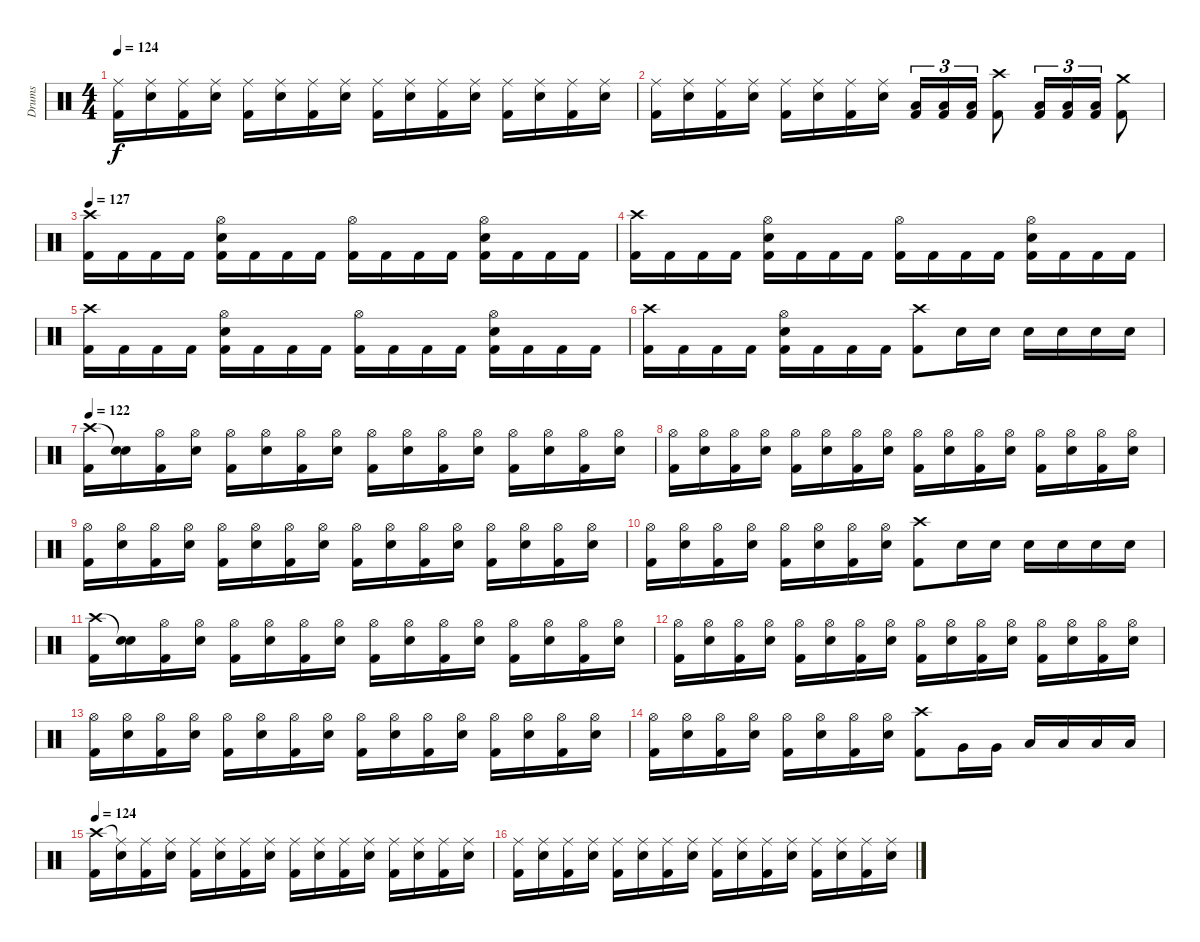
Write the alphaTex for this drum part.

\track ("Drums" "Drums") {instrument percussion}
\staff {score}
\articulation defaults
\ts (4 4)
\tempo 124
\clef neutral
\ks c
("Ride (middle)" "Kick (hit) 2").16{dy f} ("Ride (middle)" "Snare (hit) 2").16 ("Ride (middle)" "Kick (hit) 2").16 ("Ride (middle)" "Snare (hit) 2").16 ("Ride (middle)" "Kick (hit) 2").16 ("Ride (middle)" "Snare (hit) 2").16 ("Ride (middle)" "Kick (hit) 2").16 ("Ride (middle)" "Snare (hit) 2").16 ("Ride (middle)" "Kick (hit) 2").16 ("Ride (middle)" "Snare (hit) 2").16 ("Ride (middle)" "Kick (hit) 2").16 ("Ride (middle)" "Snare (hit) 2").16 ("Ride (middle)" "Kick (hit) 2").16 ("Ride (middle)" "Snare (hit) 2").16 ("Ride (middle)" "Kick (hit) 2").16 ("Ride (middle)" "Snare (hit) 2").16 |
("Ride (middle)" "Kick (hit) 2").16 ("Ride (middle)" "Snare (hit) 2").16 ("Ride (middle)" "Kick (hit) 2").16 ("Ride (middle)" "Snare (hit) 2").16 ("Ride (middle)" "Kick (hit) 2").16 ("Ride (middle)" "Snare (hit) 2").16 ("Ride (middle)" "Kick (hit) 2").16 ("Ride (middle)" "Snare (hit) 2").16 ("Low Tom (hit)" "Kick (hit) 2").16{tu (3 2)} ("Low Tom (hit)" "Kick (hit) 2").16{tu (3 2)} ("Low Tom (hit)" "Kick (hit) 2").16{tu (3 2)} ("Crash high (hit)" "Kick (hit) 2").8 ("Low Tom (hit)" "Kick (hit) 2").16{tu (3 2)} ("Low Tom (hit)" "Kick (hit) 2").16{tu (3 2)} ("Low Tom (hit)" "Kick (hit) 2").16{tu (3 2)} ("Crash medium (hit)" "Kick (hit) 2").8 |
\tempo 127
("Crash high (hit)" "Kick (hit) 2").16 "Kick (hit) 2".16 "Kick (hit) 2".16 "Kick (hit) 2".16 ("Hi-Hat (open)" "Snare (hit) 2" "Kick (hit) 2").16 "Kick (hit) 2".16 "Kick (hit) 2".16 "Kick (hit) 2".16 ("Hi-Hat (open)" "Kick (hit) 2").16 "Kick (hit) 2".16 "Kick (hit) 2".16 "Kick (hit) 2".16 ("Hi-Hat (open)" "Snare (hit) 2" "Kick (hit) 2").16 "Kick (hit) 2".16 "Kick (hit) 2".16 "Kick (hit) 2".16 |
("Crash high (hit)" "Kick (hit) 2").16 "Kick (hit) 2".16 "Kick (hit) 2".16 "Kick (hit) 2".16 ("Hi-Hat (open)" "Snare (hit) 2" "Kick (hit) 2").16 "Kick (hit) 2".16 "Kick (hit) 2".16 "Kick (hit) 2".16 ("Hi-Hat (open)" "Kick (hit) 2").16 "Kick (hit) 2".16 "Kick (hit) 2".16 "Kick (hit) 2".16 ("Hi-Hat (open)" "Snare (hit) 2" "Kick (hit) 2").16 "Kick (hit) 2".16 "Kick (hit) 2".16 "Kick (hit) 2".16 |
("Crash high (hit)" "Kick (hit) 2").16 "Kick (hit) 2".16 "Kick (hit) 2".16 "Kick (hit) 2".16 ("Hi-Hat (open)" "Snare (hit) 2" "Kick (hit) 2").16 "Kick (hit) 2".16 "Kick (hit) 2".16 "Kick (hit) 2".16 ("Hi-Hat (open)" "Kick (hit) 2").16 "Kick (hit) 2".16 "Kick (hit) 2".16 "Kick (hit) 2".16 ("Hi-Hat (open)" "Snare (hit) 2" "Kick (hit) 2").16 "Kick (hit) 2".16 "Kick (hit) 2".16 "Kick (hit) 2".16 |
("Crash high (hit)" "Kick (hit) 2").16 "Kick (hit) 2".16 "Kick (hit) 2".16 "Kick (hit) 2".16 ("Hi-Hat (open)" "Snare (hit) 2" "Kick (hit) 2").16 "Kick (hit) 2".16 "Kick (hit) 2".16 "Kick (hit) 2".16 ("Crash high (hit)" "Kick (hit) 2").8 "Snare (hit) 2".16 "Snare (hit) 2".16 "Snare (hit) 2".16 "Snare (hit) 2".16 "Snare (hit) 2".16 "Snare (hit) 2".16 |
\tempo 122
("Crash high (hit)" "Kick (hit) 2").16 ("Snare (hit)"{t} "Snare (hit) 2").16 ("Hi-Hat (open)" "Kick (hit) 2").16 ("Hi-Hat (open)" "Snare (hit) 2").16 ("Hi-Hat (open)" "Kick (hit) 2").16 ("Hi-Hat (open)" "Snare (hit) 2").16 ("Hi-Hat (open)" "Kick (hit) 2").16 ("Hi-Hat (open)" "Snare (hit) 2").16 ("Hi-Hat (open)" "Kick (hit) 2").16 ("Hi-Hat (open)" "Snare (hit) 2").16 ("Hi-Hat (open)" "Kick (hit) 2").16 ("Hi-Hat (open)" "Snare (hit) 2").16 ("Hi-Hat (open)" "Kick (hit) 2").16 ("Hi-Hat (open)" "Snare (hit) 2").16 ("Hi-Hat (open)" "Kick (hit) 2").16 ("Hi-Hat (open)" "Snare (hit) 2").16 |
("Hi-Hat (open)" "Kick (hit) 2").16 ("Hi-Hat (open)" "Snare (hit) 2").16 ("Hi-Hat (open)" "Kick (hit) 2").16 ("Hi-Hat (open)" "Snare (hit) 2").16 ("Hi-Hat (open)" "Kick (hit) 2").16 ("Hi-Hat (open)" "Snare (hit) 2").16 ("Hi-Hat (open)" "Kick (hit) 2").16 ("Hi-Hat (open)" "Snare (hit) 2").16 ("Hi-Hat (open)" "Kick (hit) 2").16 ("Hi-Hat (open)" "Snare (hit) 2").16 ("Hi-Hat (open)" "Kick (hit) 2").16 ("Hi-Hat (open)" "Snare (hit) 2").16 ("Hi-Hat (open)" "Kick (hit) 2").16 ("Hi-Hat (open)" "Snare (hit) 2").16 ("Hi-Hat (open)" "Kick (hit) 2").16 ("Hi-Hat (open)" "Snare (hit) 2").16 |
("Hi-Hat (open)" "Kick (hit) 2").16 ("Hi-Hat (open)" "Snare (hit) 2").16 ("Hi-Hat (open)" "Kick (hit) 2").16 ("Hi-Hat (open)" "Snare (hit) 2").16 ("Hi-Hat (open)" "Kick (hit) 2").16 ("Hi-Hat (open)" "Snare (hit) 2").16 ("Hi-Hat (open)" "Kick (hit) 2").16 ("Hi-Hat (open)" "Snare (hit) 2").16 ("Hi-Hat (open)" "Kick (hit) 2").16 ("Hi-Hat (open)" "Snare (hit) 2").16 ("Hi-Hat (open)" "Kick (hit) 2").16 ("Hi-Hat (open)" "Snare (hit) 2").16 ("Hi-Hat (open)" "Kick (hit) 2").16 ("Hi-Hat (open)" "Snare (hit) 2").16 ("Hi-Hat (open)" "Kick (hit) 2").16 ("Hi-Hat (open)" "Snare (hit) 2").16 |
("Hi-Hat (open)" "Kick (hit) 2").16 ("Hi-Hat (open)" "Snare (hit) 2").16 ("Hi-Hat (open)" "Kick (hit) 2").16 ("Hi-Hat (open)" "Snare (hit) 2").16 ("Hi-Hat (open)" "Kick (hit) 2").16 ("Hi-Hat (open)" "Snare (hit) 2").16 ("Hi-Hat (open)" "Kick (hit) 2").16 ("Hi-Hat (open)" "Snare (hit) 2").16 ("Crash high (hit)" "Kick (hit) 2").8 "Snare (hit) 2".16 "Snare (hit) 2".16 "Snare (hit) 2".16 "Snare (hit) 2".16 "Snare (hit) 2".16 "Snare (hit) 2".16 |
("Crash high (hit)" "Kick (hit) 2").16 ("Snare (hit)"{t} "Snare (hit) 2").16 ("Hi-Hat (open)" "Kick (hit) 2").16 ("Hi-Hat (open)" "Snare (hit) 2").16 ("Hi-Hat (open)" "Kick (hit) 2").16 ("Hi-Hat (open)" "Snare (hit) 2").16 ("Hi-Hat (open)" "Kick (hit) 2").16 ("Hi-Hat (open)" "Snare (hit) 2").16 ("Hi-Hat (open)" "Kick (hit) 2").16 ("Hi-Hat (open)" "Snare (hit) 2").16 ("Hi-Hat (open)" "Kick (hit) 2").16 ("Hi-Hat (open)" "Snare (hit) 2").16 ("Hi-Hat (open)" "Kick (hit) 2").16 ("Hi-Hat (open)" "Snare (hit) 2").16 ("Hi-Hat (open)" "Kick (hit) 2").16 ("Hi-Hat (open)" "Snare (hit) 2").16 |
("Hi-Hat (open)" "Kick (hit) 2").16 ("Hi-Hat (open)" "Snare (hit) 2").16 ("Hi-Hat (open)" "Kick (hit) 2").16 ("Hi-Hat (open)" "Snare (hit) 2").16 ("Hi-Hat (open)" "Kick (hit) 2").16 ("Hi-Hat (open)" "Snare (hit) 2").16 ("Hi-Hat (open)" "Kick (hit) 2").16 ("Hi-Hat (open)" "Snare (hit) 2").16 ("Hi-Hat (open)" "Kick (hit) 2").16 ("Hi-Hat (open)" "Snare (hit) 2").16 ("Hi-Hat (open)" "Kick (hit) 2").16 ("Hi-Hat (open)" "Snare (hit) 2").16 ("Hi-Hat (open)" "Kick (hit) 2").16 ("Hi-Hat (open)" "Snare (hit) 2").16 ("Hi-Hat (open)" "Kick (hit) 2").16 ("Hi-Hat (open)" "Snare (hit) 2").16 |
("Hi-Hat (open)" "Kick (hit) 2").16 ("Hi-Hat (open)" "Snare (hit) 2").16 ("Hi-Hat (open)" "Kick (hit) 2").16 ("Hi-Hat (open)" "Snare (hit) 2").16 ("Hi-Hat (open)" "Kick (hit) 2").16 ("Hi-Hat (open)" "Snare (hit) 2").16 ("Hi-Hat (open)" "Kick (hit) 2").16 ("Hi-Hat (open)" "Snare (hit) 2").16 ("Hi-Hat (open)" "Kick (hit) 2").16 ("Hi-Hat (open)" "Snare (hit) 2").16 ("Hi-Hat (open)" "Kick (hit) 2").16 ("Hi-Hat (open)" "Snare (hit) 2").16 ("Hi-Hat (open)" "Kick (hit) 2").16 ("Hi-Hat (open)" "Snare (hit) 2").16 ("Hi-Hat (open)" "Kick (hit) 2").16 ("Hi-Hat (open)" "Snare (hit) 2").16 |
("Hi-Hat (open)" "Kick (hit) 2").16 ("Hi-Hat (open)" "Snare (hit) 2").16 ("Hi-Hat (open)" "Kick (hit) 2").16 ("Hi-Hat (open)" "Snare (hit) 2").16 ("Hi-Hat (open)" "Kick (hit) 2").16 ("Hi-Hat (open)" "Snare (hit) 2").16 ("Hi-Hat (open)" "Kick (hit) 2").16 ("Hi-Hat (open)" "Snare (hit) 2").16 ("Crash high (hit)" "Kick (hit) 2").8 "Very Low Tom (hit)".16 "Very Low Tom (hit)".16 "Low Floor Tom (hit)".16 "Low Floor Tom (hit)".16 "Low Floor Tom (hit)".16 "Low Floor Tom (hit)".16 |
\tempo 124
("Crash high (hit)" "Kick (hit) 2").16 ("Ride (middle)"{t} "Snare (hit) 2").16 ("Ride (middle)" "Kick (hit) 2").16 ("Ride (middle)" "Snare (hit) 2").16 ("Ride (middle)" "Kick (hit) 2").16 ("Ride (middle)" "Snare (hit) 2").16 ("Ride (middle)" "Kick (hit) 2").16 ("Ride (middle)" "Snare (hit) 2").16 ("Ride (middle)" "Kick (hit) 2").16 ("Ride (middle)" "Snare (hit) 2").16 ("Ride (middle)" "Kick (hit) 2").16 ("Ride (middle)" "Snare (hit) 2").16 ("Ride (middle)" "Kick (hit) 2").16 ("Ride (middle)" "Snare (hit) 2").16 ("Ride (middle)" "Kick (hit) 2").16 ("Ride (middle)" "Snare (hit) 2").16 |
("Ride (middle)" "Kick (hit) 2").16 ("Ride (middle)" "Snare (hit) 2").16 ("Ride (middle)" "Kick (hit) 2").16 ("Ride (middle)" "Snare (hit) 2").16 ("Ride (middle)" "Kick (hit) 2").16 ("Ride (middle)" "Snare (hit) 2").16 ("Ride (middle)" "Kick (hit) 2").16 ("Ride (middle)" "Snare (hit) 2").16 ("Ride (middle)" "Kick (hit) 2").16 ("Ride (middle)" "Snare (hit) 2").16 ("Ride (middle)" "Kick (hit) 2").16 ("Ride (middle)" "Snare (hit) 2").16 ("Ride (middle)" "Kick (hit) 2").16 ("Ride (middle)" "Snare (hit) 2").16 ("Ride (middle)" "Kick (hit) 2").16 ("Ride (middle)" "Snare (hit) 2").16
